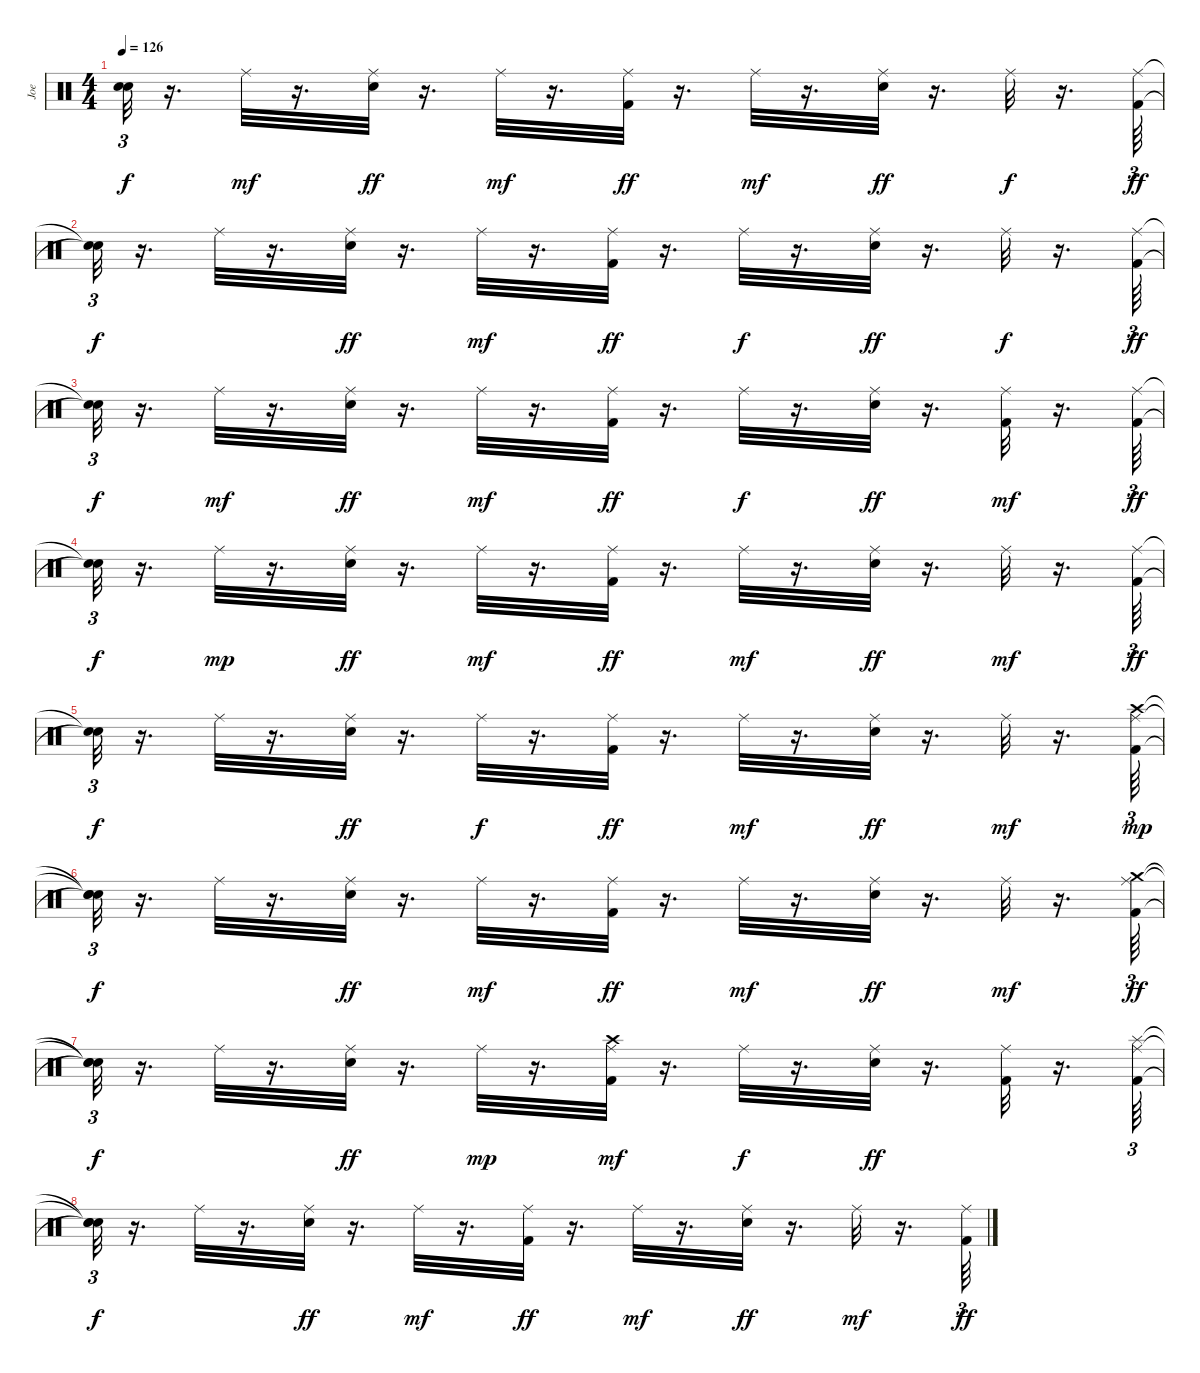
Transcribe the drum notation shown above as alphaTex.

\track ("Joe" "Joe") {instrument percussion}
\staff {score}
\articulation defaults
\ts (4 4)
\tempo 126
\clef neutral
\ks c
("Snare (hit)"{t} "Snare (hit)"{t}).32{tu (3 2) dy f} r.16{d} "Ride (middle)".32{dy mf} r.16{d} ("Electric Snare (hit)" "Ride (middle)").32{dy ff} r.16{d} "Ride (middle)".32{dy mf} r.16{d} ("Kick (hit) 2" "Ride (middle)").32{dy ff} r.16{d} "Ride (middle)".32{dy mf} r.16{d} ("Electric Snare (hit)" "Ride (middle)").32{dy ff} r.16{d} "Ride (middle)".32{dy f} r.16{d} ("Ride (middle)" "Kick (hit) 2").64{tu (3 2) dy ff} |
("Snare (hit)"{t} "Snare (hit)"{t}).32{tu (3 2) dy f} r.16{d} "Ride (middle)".32 r.16{d} ("Ride (middle)" "Electric Snare (hit)").32{dy ff} r.16{d} "Ride (middle)".32{dy mf} r.16{d} ("Kick (hit) 2" "Ride (middle)").32{dy ff} r.16{d} "Ride (middle)".32{dy f} r.16{d} ("Electric Snare (hit)" "Ride (middle)").32{dy ff} r.16{d} "Ride (middle)".32{dy f} r.16{d} ("Kick (hit) 2" "Ride (middle)").64{tu (3 2) dy ff} |
("Snare (hit)"{t} "Snare (hit)"{t}).32{tu (3 2) dy f} r.16{d} "Ride (middle)".32{dy mf} r.16{d} ("Electric Snare (hit)" "Ride (middle)").32{dy ff} r.16{d} "Ride (middle)".32{dy mf} r.16{d} ("Ride (middle)" "Kick (hit) 2").32{dy ff} r.16{d} "Ride (middle)".32{dy f} r.16{d} ("Electric Snare (hit)" "Ride (middle)").32{dy ff} r.16{d} ("Kick (hit) 2" "Ride (middle)").32{dy mf} r.16{d} ("Kick (hit) 2" "Ride (middle)").64{tu (3 2) dy ff} |
("Snare (hit)"{t} "Snare (hit)"{t}).32{tu (3 2) dy f} r.16{d} "Ride (middle)".32{dy mp} r.16{d} ("Ride (middle)" "Electric Snare (hit)").32{dy ff} r.16{d} "Ride (middle)".32{dy mf} r.16{d} ("Kick (hit) 2" "Ride (middle)").32{dy ff} r.16{d} "Ride (middle)".32{dy mf} r.16{d} ("Electric Snare (hit)" "Ride (middle)").32{dy ff} r.16{d} "Ride (middle)".32{dy mf} r.16{d} ("Ride (middle)" "Kick (hit) 2").64{tu (3 2) dy ff} |
("Snare (hit)"{t} "Snare (hit)"{t}).32{tu (3 2) dy f} r.16{d} "Ride (middle)".32 r.16{d} ("Electric Snare (hit)" "Ride (middle)").32{dy ff} r.16{d} "Ride (middle)".32{dy f} r.16{d} ("Kick (hit) 2" "Ride (middle)").32{dy ff} r.16{d} "Ride (middle)".32{dy mf} r.16{d} ("Electric Snare (hit)" "Ride (middle)").32{dy ff} r.16{d} "Ride (middle)".32{dy mf} r.16{d} ("Kick (hit) 2" "Ride (middle)" "Crash high (hit)").64{tu (3 2) dy mp} |
("Snare (hit)"{t} "Snare (hit)"{t} "Snare (hit)"{t}).32{tu (3 2) dy f} r.16{d} "Ride (middle)".32 r.16{d} ("Electric Snare (hit)" "Ride (middle)").32{dy ff} r.16{d} "Ride (middle)".32{dy mf} r.16{d} ("Kick (hit) 2" "Ride (middle)").32{dy ff} r.16{d} "Ride (middle)".32{dy mf} r.16{d} ("Electric Snare (hit)" "Ride (middle)").32{dy ff} r.16{d} "Ride (middle)".32{dy mf} r.16{d} ("Kick (hit) 2" "Crash medium (hit)" "Ride (middle)").64{tu (3 2) dy ff} |
("Snare (hit)"{t} "Snare (hit)"{t} "Snare (hit)"{t}).32{tu (3 2) dy f} r.16{d} "Ride (middle)".32 r.16{d} ("Electric Snare (hit)" "Ride (middle)").32{dy ff} r.16{d} "Ride (middle)".32{dy mp} r.16{d} ("Kick (hit) 2" "Ride (middle)" "Crash high (hit)").32{dy mf} r.16{d} "Ride (middle)".32{dy f} r.16{d} ("Electric Snare (hit)" "Ride (middle)").32{dy ff} r.16{d} ("Ride (middle)" "Kick (hit) 2").32 r.16{d} ("Kick (hit) 2" "Ride (middle)" "Splash (hit)").64{tu (3 2)} |
("Snare (hit)"{t} "Snare (hit)"{t} "Snare (hit)"{t}).32{tu (3 2) dy f} r.16{d} "Ride (middle)".32 r.16{d} ("Electric Snare (hit)" "Ride (middle)").32{dy ff} r.16{d} "Ride (middle)".32{dy mf} r.16{d} ("Kick (hit) 2" "Ride (middle)").32{dy ff} r.16{d} "Ride (middle)".32{dy mf} r.16{d} ("Ride (middle)" "Electric Snare (hit)").32{dy ff} r.16{d} "Ride (middle)".32{dy mf} r.16{d} ("Kick (hit) 2" "Ride (middle)").64{tu (3 2) dy ff}
